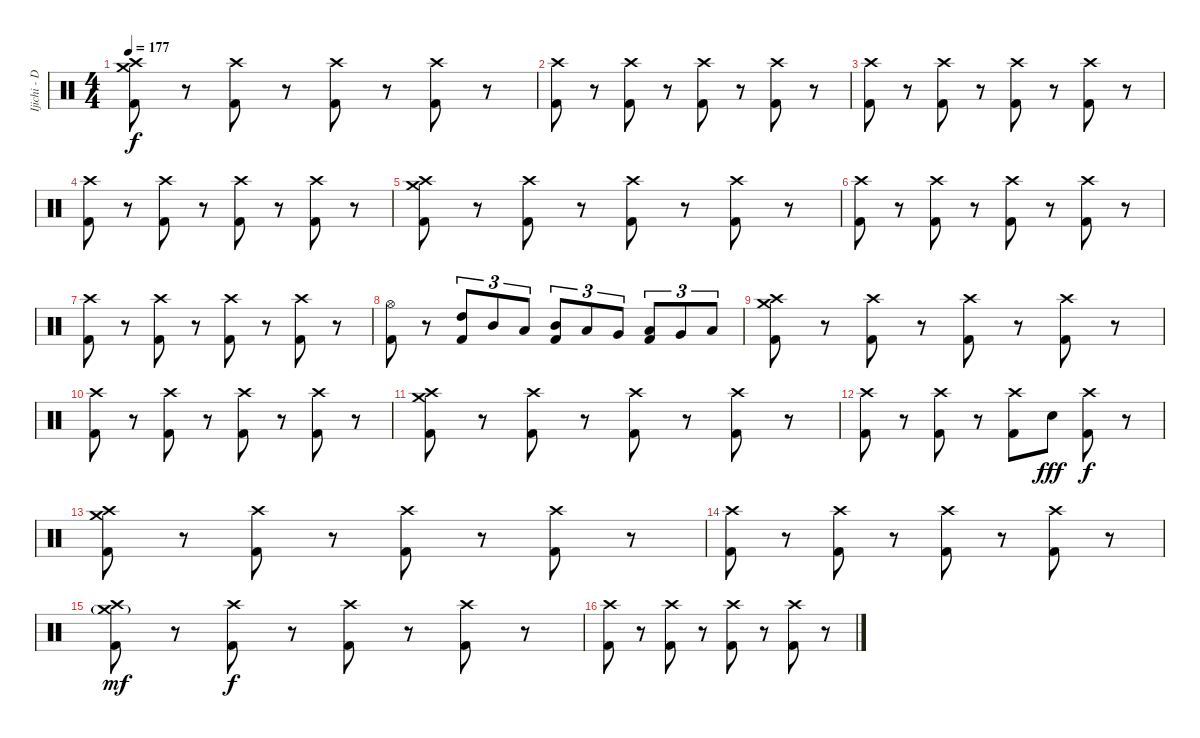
\track ("Ijichi - Drums" "Ijichi - D") {instrument percussion}
\staff {score}
\articulation defaults
\ts (4 4)
\tempo 177
\clef neutral
\ks c
("Crash high (hit)" "Crash medium (hit)" "Kick (hit) 2").8{dy f} r.8 ("Crash high (hit)" "Kick (hit) 2").8 r.8 ("Crash high (hit)" "Kick (hit) 2").8 r.8 ("Crash high (hit)" "Kick (hit) 2").8 r.8 |
("Crash high (hit)" "Kick (hit) 2").8 r.8 ("Crash high (hit)" "Kick (hit) 2").8 r.8 ("Crash high (hit)" "Kick (hit) 2").8 r.8 ("Crash high (hit)" "Kick (hit) 2").8 r.8 |
("Crash high (hit)" "Kick (hit) 2").8 r.8 ("Crash high (hit)" "Kick (hit) 2").8 r.8 ("Crash high (hit)" "Kick (hit) 2").8 r.8 ("Crash high (hit)" "Kick (hit) 2").8 r.8 |
("Crash high (hit)" "Kick (hit) 2").8 r.8 ("Crash high (hit)" "Kick (hit) 2").8 r.8 ("Crash high (hit)" "Kick (hit) 2").8 r.8 ("Crash high (hit)" "Kick (hit) 2").8 r.8 |
("Crash high (hit)" "Crash medium (hit)" "Kick (hit) 2").8 r.8 ("Crash high (hit)" "Kick (hit) 2").8 r.8 ("Crash high (hit)" "Kick (hit) 2").8 r.8 ("Crash high (hit)" "Kick (hit) 2").8 r.8 |
("Crash high (hit)" "Kick (hit) 2").8 r.8 ("Crash high (hit)" "Kick (hit) 2").8 r.8 ("Crash high (hit)" "Kick (hit) 2").8 r.8 ("Crash high (hit)" "Kick (hit) 2").8 r.8 |
("Crash high (hit)" "Kick (hit) 2").8 r.8 ("Crash high (hit)" "Kick (hit) 2").8 r.8 ("Crash high (hit)" "Kick (hit) 2").8 r.8 ("Crash high (hit)" "Kick (hit) 2").8 r.8 |
("Hi-Hat (open)" "Kick (hit) 2").8 r.8 ("High Tom (hit)" "Kick (hit) 2").8{tu (3 2)} "Mid Tom (hit)".8{tu (3 2)} "Low Tom (hit)".8{tu (3 2)} ("Mid Tom (hit)" "Kick (hit) 2").8{tu (3 2)} "Low Tom (hit)".8{tu (3 2)} "Very Low Tom (hit)".8{tu (3 2)} ("Low Tom (hit)" "Kick (hit) 2").8{tu (3 2)} "Very Low Tom (hit)".8{tu (3 2)} "Low Floor Tom (hit)".8{tu (3 2)} |
("Crash high (hit)" "Crash medium (hit)" "Kick (hit) 2").8 r.8 ("Crash high (hit)" "Kick (hit) 2").8 r.8 ("Crash high (hit)" "Kick (hit) 2").8 r.8 ("Crash high (hit)" "Kick (hit) 2").8 r.8 |
("Crash high (hit)" "Kick (hit) 2").8 r.8 ("Crash high (hit)" "Kick (hit) 2").8 r.8 ("Crash high (hit)" "Kick (hit) 2").8 r.8 ("Crash high (hit)" "Kick (hit) 2").8 r.8 |
("Crash high (hit)" "Crash medium (hit)" "Kick (hit) 2").8 r.8 ("Crash high (hit)" "Kick (hit) 2").8 r.8 ("Crash high (hit)" "Kick (hit) 2").8 r.8 ("Crash high (hit)" "Kick (hit) 2").8 r.8 |
("Crash high (hit)" "Kick (hit) 2").8 r.8 ("Crash high (hit)" "Kick (hit) 2").8 r.8 ("Crash high (hit)" "Kick (hit) 2").8 "Snare (hit) 2".8{dy fff} ("Crash high (hit)" "Kick (hit) 2").8{dy f} r.8 |
("Crash high (hit)" "Crash medium (hit)" "Kick (hit) 2").8 r.8 ("Crash high (hit)" "Kick (hit) 2").8 r.8 ("Crash high (hit)" "Kick (hit) 2").8 r.8 ("Crash high (hit)" "Kick (hit) 2").8 r.8 |
("Crash high (hit)" "Kick (hit) 2").8 r.8 ("Crash high (hit)" "Kick (hit) 2").8 r.8 ("Crash high (hit)" "Kick (hit) 2").8 r.8 ("Crash high (hit)" "Kick (hit) 2").8 r.8 |
("Crash high (hit)" "Crash medium (hit)"{g} "Kick (hit) 2").8{dy mf} r.8 ("Crash high (hit)" "Kick (hit) 2").8{dy f} r.8 ("Crash high (hit)" "Kick (hit) 2").8 r.8 ("Crash high (hit)" "Kick (hit) 2").8 r.8 |
("Crash high (hit)" "Kick (hit) 2").8 r.8 ("Crash high (hit)" "Kick (hit) 2").8 r.8 ("Crash high (hit)" "Kick (hit) 2").8 r.8 ("Crash high (hit)" "Kick (hit) 2").8 r.8
